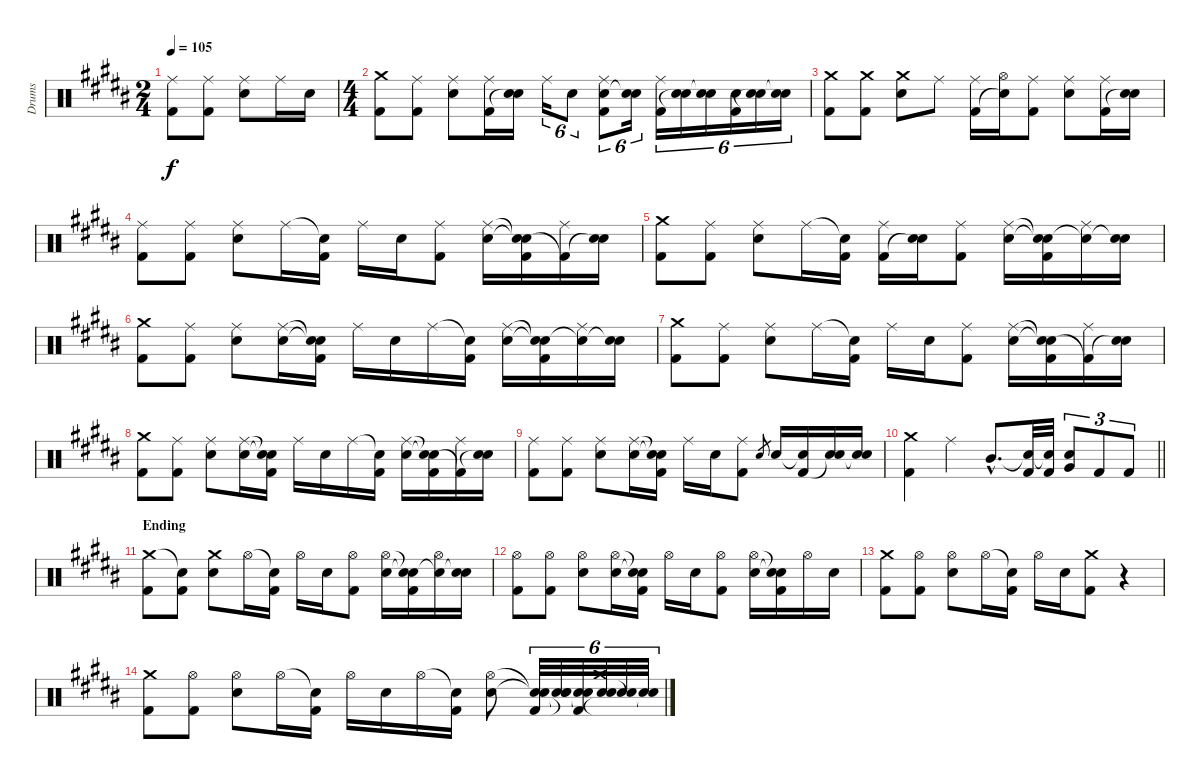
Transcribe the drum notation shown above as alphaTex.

\track ("Drums" "Drums") {instrument percussion}
\staff {score}
\articulation defaults
\ts (2 4)
\tempo 105
\clef neutral
\ks g#minor
("Ride (middle)" "Kick (hit) 2").8{dy f} ("Ride (middle)" "Kick (hit) 2").8 ("Ride (middle)" "Electric Snare (hit)").8 "Ride (middle)".16 "Electric Snare (hit)".16 |
\ts (4 4)
("Crash medium (hit)" "Kick (hit) 2").8 ("Ride (middle)" "Kick (hit) 2").8 ("Ride (middle)" "Electric Snare (hit)").8 ("Ride (middle)" "Kick (hit) 2").16 ("Electric Snare (hit)" "Snare (hit)"{t}).16 "Ride (middle)".16{tu (6 4)} "Electric Snare (hit)".8{tu (6 4)} ("Ride (middle)" "Electric Snare (hit)" "Kick (hit) 2").8{tu (6 4)} ("Electric Snare (hit)" "Snare (hit)"{t}).16{tu (6 4)} ("Ride (middle)" "Kick (hit) 2").16{tu (6 4)} ("Electric Snare (hit)" "Snare (hit)"{t}).16{tu (6 4)} ("Electric Snare (hit)" "Snare (hit)"{t}).16{tu (6 4)} ("Electric Snare (hit)" "Kick (hit) 2").16{tu (6 4)} ("Electric Snare (hit)" "Snare (hit)"{t}).16{tu (6 4)} ("Electric Snare (hit)" "Snare (hit)"{t}).16{tu (6 4)} |
("Crash medium (hit)" "Kick (hit) 2").8 ("Crash medium (hit)" "Kick (hit) 2").8 ("Crash medium (hit)" "Electric Snare (hit)").8 "Ride (middle)".8 ("Ride (middle)" "Kick (hit) 2").16 ("Hi-Hat (open)" "Snare (hit)"{t}).16 ("Ride (middle)" "Kick (hit) 2").8 ("Ride (middle)" "Electric Snare (hit)").8 ("Ride (middle)" "Kick (hit) 2").16 ("Electric Snare (hit)" "Snare (hit)"{t}).16 |
("Ride (middle)" "Kick (hit) 2").8 ("Ride (middle)" "Kick (hit) 2").8 ("Ride (middle)" "Electric Snare (hit)").8 "Ride (middle)".16 ("Snare (hit)"{t} "Kick (hit) 2").16 "Ride (middle)".16 "Electric Snare (hit)".16 ("Ride (middle)" "Kick (hit) 2").8 ("Ride (middle)" "Electric Snare (hit)").16 ("Snare (hit)"{t} "Electric Snare (hit)"{t} "Kick (hit) 2").16 ("Ride (middle)" "Kick (hit) 2"{t}).16 ("Electric Snare (hit)" "Snare (hit)"{t}).16 |
("Crash medium (hit)" "Kick (hit) 2").8 ("Ride (middle)" "Kick (hit) 2").8 ("Ride (middle)" "Electric Snare (hit)").8 "Ride (middle)".16 ("Snare (hit)"{t} "Kick (hit) 2").16 ("Ride (middle)" "Kick (hit) 2").16 ("Electric Snare (hit)" "Snare (hit)"{t}).16 ("Ride (middle)" "Kick (hit) 2").8 ("Ride (middle)" "Electric Snare (hit)").16 ("Snare (hit)"{t} "Snare (hit)"{t} "Kick (hit) 2").16 ("Ride (middle)" "Snare (hit)"{t}).16 ("Electric Snare (hit)" "Snare (hit)"{t}).16 |
("Crash medium (hit)" "Kick (hit) 2").8 ("Ride (middle)" "Kick (hit) 2").8 ("Ride (middle)" "Electric Snare (hit)").8 ("Ride (middle)" "Electric Snare (hit)").16 ("Snare (hit)"{t} "Electric Snare (hit)"{t} "Kick (hit) 2").16 "Ride (middle)".16 "Electric Snare (hit)".16 "Ride (middle)".16 ("Snare (hit)"{t} "Kick (hit) 2").16 ("Ride (middle)" "Electric Snare (hit)").16 ("Snare (hit)"{t} "Snare (hit)"{t} "Kick (hit) 2").16 ("Ride (middle)" "Snare (hit)"{t}).16 ("Electric Snare (hit)" "Snare (hit)"{t}).16 |
("Crash medium (hit)" "Kick (hit) 2").8 ("Ride (middle)" "Kick (hit) 2").8 ("Ride (middle)" "Electric Snare (hit)").8 "Ride (middle)".16 ("Snare (hit)"{t} "Kick (hit) 2").16 "Ride (middle)".16 "Electric Snare (hit)".16 ("Ride (middle)" "Kick (hit) 2").8 ("Ride (middle)" "Electric Snare (hit)").16 ("Snare (hit)"{t} "Snare (hit)"{t} "Kick (hit) 2").16 ("Ride (middle)" "Kick (hit) 2"{t}).16 ("Electric Snare (hit)" "Snare (hit)"{t}).16 |
("Crash medium (hit)" "Kick (hit) 2").8 ("Ride (middle)" "Kick (hit) 2").8 ("Ride (middle)" "Electric Snare (hit)").8 ("Ride (middle)" "Electric Snare (hit)").16 ("Snare (hit)"{t} "Snare (hit)"{t} "Kick (hit) 2").16 "Ride (middle)".16 "Electric Snare (hit)".16 "Ride (middle)".16 ("Snare (hit)"{t} "Kick (hit) 2").16 ("Ride (middle)" "Electric Snare (hit)").16 ("Snare (hit)"{t} "Electric Snare (hit)"{t} "Kick (hit) 2").16 ("Ride (middle)" "Kick (hit) 2"{t}).16 ("Electric Snare (hit)" "Snare (hit)"{t}).16 |
("Ride (middle)" "Kick (hit) 2").8 ("Ride (middle)" "Kick (hit) 2").8 ("Ride (middle)" "Electric Snare (hit)").8 ("Ride (middle)" "Electric Snare (hit)").16 ("Snare (hit)"{t} "Snare (hit)"{t} "Kick (hit) 2").16 "Ride (middle)".16 "Electric Snare (hit)".16 ("Ride (middle)" "Kick (hit) 2").8 "Electric Snare (hit)".8{gr} "Electric Snare (hit)".16 ("Snare (hit)"{t} "Kick (hit) 2").16 ("Electric Snare (hit)" "Snare (hit)"{t}).16 ("Electric Snare (hit)" "Snare (hit)"{t}).16 |
\barLineRight lightlight
("Crash medium (hit)" "Kick (hit) 2").4 "Ride (middle)".4 "Mid Tom (hit)"{hac}.8{d} ("Snare (hit)"{t} "Kick (hit) 2").32 ("Snare (hit)"{t} "Kick (hit) 2").32 ("Electric Snare (hit)" "Very Low Tom (hit)").8{tu (3 2)} "Kick (hit) 2".8{tu (3 2)} "Kick (hit) 2".8{tu (3 2)} |
\section ("" "Ending")
("Crash medium (hit)" "Kick (hit) 2").8 ("Snare (hit)"{t} "Kick (hit) 2").8 ("Crash medium (hit)" "Electric Snare (hit)").8 "Hi-Hat (open)".16 ("Snare (hit)"{t} "Kick (hit) 2").16 "Hi-Hat (open)".16 "Electric Snare (hit)".16 ("Hi-Hat (open)" "Kick (hit) 2").8 ("Hi-Hat (open)" "Electric Snare (hit)").16 ("Snare (hit)"{t} "Snare (hit)"{t} "Kick (hit) 2").16 ("Hi-Hat (open)" "Snare (hit)"{t}).16 ("Electric Snare (hit)" "Snare (hit)"{t}).16 |
("Hi-Hat (open)" "Kick (hit) 2").8 ("Hi-Hat (open)" "Kick (hit) 2").8 ("Hi-Hat (open)" "Electric Snare (hit)").8 ("Hi-Hat (open)" "Electric Snare (hit)").16 ("Snare (hit)"{t} "Snare (hit)"{t} "Kick (hit) 2").16 "Hi-Hat (open)".16 "Electric Snare (hit)".16 ("Hi-Hat (open)" "Kick (hit) 2").8 ("Hi-Hat (open)" "Electric Snare (hit)").16 ("Snare (hit)"{t} "Snare (hit)"{t} "Kick (hit) 2").16 "Hi-Hat (open)".16 "Electric Snare (hit)".16 |
("Crash medium (hit)" "Kick (hit) 2").8 ("Hi-Hat (open)" "Kick (hit) 2").8 ("Hi-Hat (open)" "Electric Snare (hit)").8 "Hi-Hat (open)".16 ("Snare (hit)"{t} "Kick (hit) 2").16 "Hi-Hat (open)".16 "Electric Snare (hit)".16 ("Crash medium (hit)" "Kick (hit) 2").8 r.4 |
("Crash medium (hit)" "Kick (hit) 2").8 ("Hi-Hat (open)" "Kick (hit) 2").8 ("Hi-Hat (open)" "Electric Snare (hit)").8 "Hi-Hat (open)".16 ("Snare (hit)"{t} "Kick (hit) 2").16 "Hi-Hat (open)".16 "Electric Snare (hit)".16 "Hi-Hat (open)".16 ("Snare (hit)"{t} "Kick (hit) 2").16 ("Hi-Hat (open)" "Electric Snare (hit)").8 ("Snare (hit)"{t} "Snare (hit)"{t} "Kick (hit) 2").32{tu (6 4)} ("Snare (hit)"{t} "Snare (hit)"{t} "Snare (hit)"{t}).32{tu (6 4)} ("Snare (hit)"{t} "Snare (hit)"{t} "Kick (hit) 2").32{tu (6 4)} ("Crash medium (hit)" "Electric Snare (hit)" "Snare (hit)"{t}).32{tu (6 4)} ("Snare (hit)"{t} "Snare (hit)"{t}).32{tu (6 4)} ("Snare (hit)"{t} "Snare (hit)"{t}).32{tu (6 4)}
